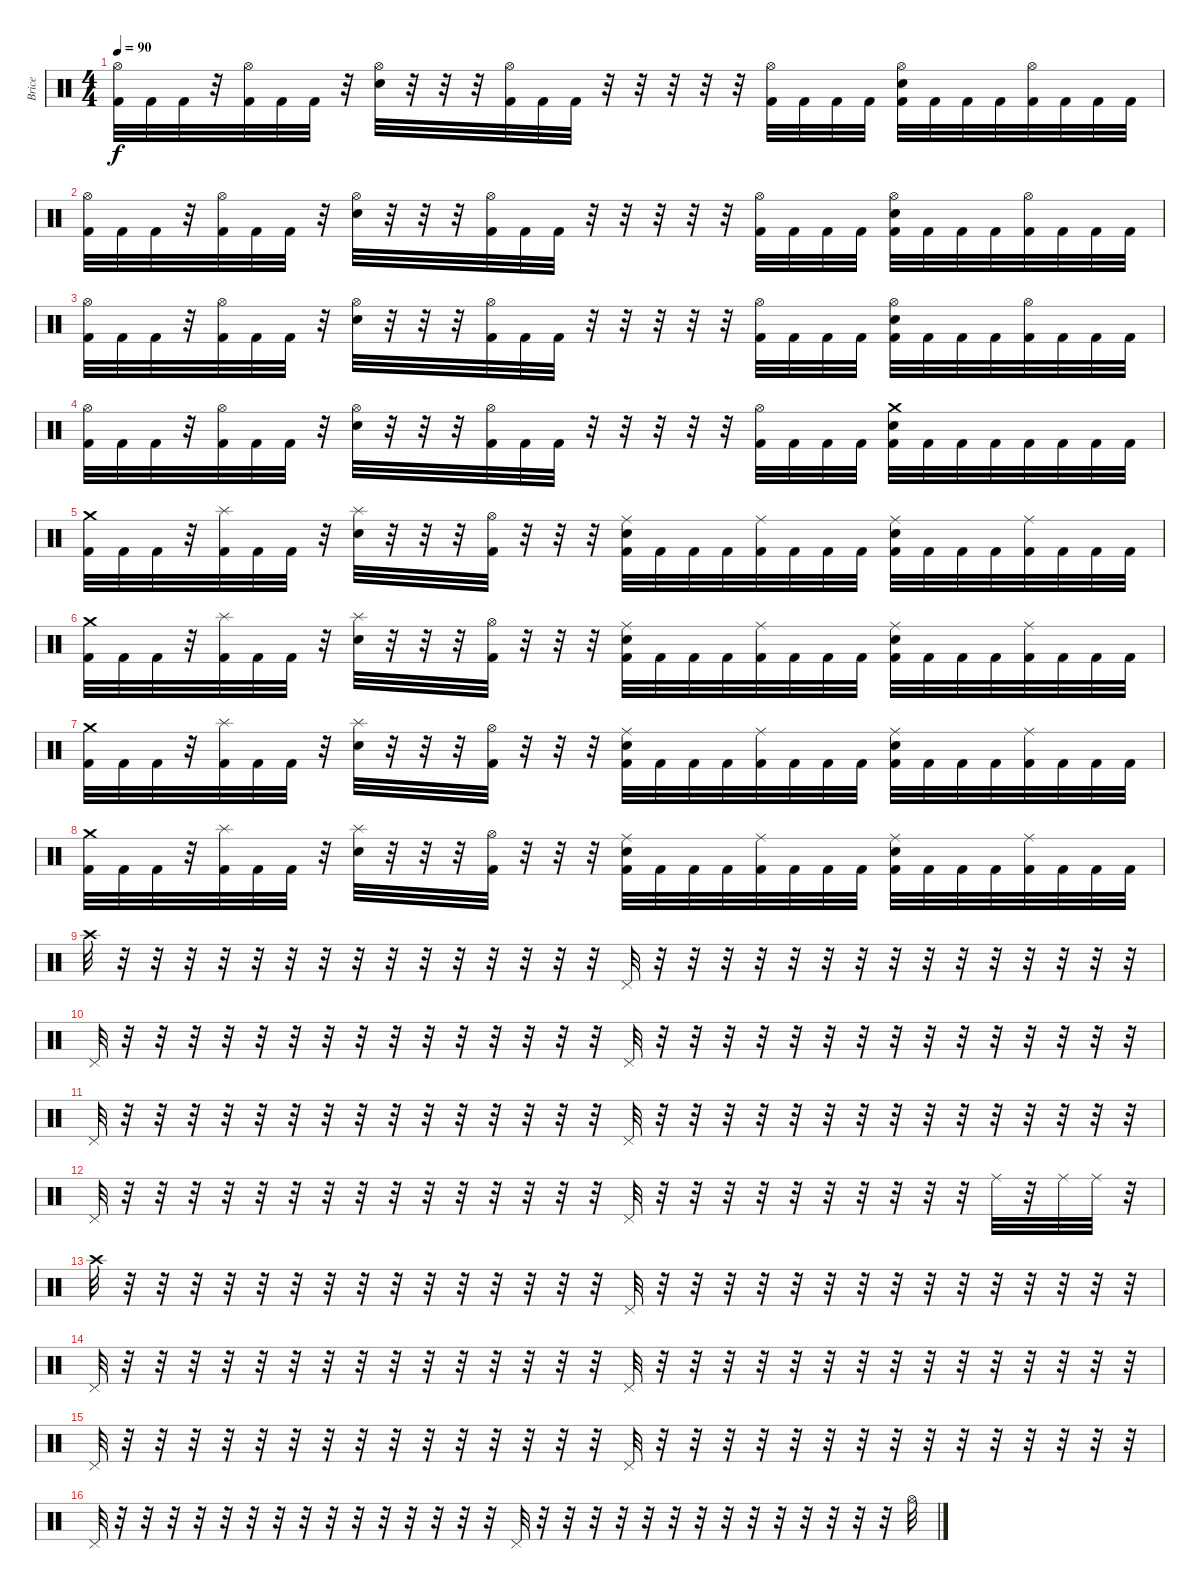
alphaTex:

\track ("Brice" "Brice") {instrument percussion}
\staff {score}
\articulation defaults
\ts (4 4)
\tempo 90
\clef neutral
\ks c
("Hi-Hat (open)" "Kick (hit) 2").32{dy f} "Kick (hit) 2".32 "Kick (hit) 2".32 r.32 ("Hi-Hat (open)" "Kick (hit) 2").32 "Kick (hit) 2".32 "Kick (hit) 2".32 r.32 ("Hi-Hat (open)" "Electric Snare (hit)").32 r.32 r.32 r.32 ("Hi-Hat (open)" "Kick (hit) 2").32 "Kick (hit) 2".32 "Kick (hit) 2".32 r.32 r.32 r.32 r.32 r.32 ("Hi-Hat (open)" "Kick (hit) 2").32 "Kick (hit) 2".32 "Kick (hit) 2".32 "Kick (hit) 2".32 ("Hi-Hat (open)" "Electric Snare (hit)" "Kick (hit) 2").32 "Kick (hit) 2".32 "Kick (hit) 2".32 "Kick (hit) 2".32 ("Hi-Hat (open)" "Kick (hit) 2").32 "Kick (hit) 2".32 "Kick (hit) 2".32 "Kick (hit) 2".32 |
("Hi-Hat (open)" "Kick (hit) 2").32 "Kick (hit) 2".32 "Kick (hit) 2".32 r.32 ("Hi-Hat (open)" "Kick (hit) 2").32 "Kick (hit) 2".32 "Kick (hit) 2".32 r.32 ("Hi-Hat (open)" "Electric Snare (hit)").32 r.32 r.32 r.32 ("Hi-Hat (open)" "Kick (hit) 2").32 "Kick (hit) 2".32 "Kick (hit) 2".32 r.32 r.32 r.32 r.32 r.32 ("Hi-Hat (open)" "Kick (hit) 2").32 "Kick (hit) 2".32 "Kick (hit) 2".32 "Kick (hit) 2".32 ("Hi-Hat (open)" "Electric Snare (hit)" "Kick (hit) 2").32 "Kick (hit) 2".32 "Kick (hit) 2".32 "Kick (hit) 2".32 ("Hi-Hat (open)" "Kick (hit) 2").32 "Kick (hit) 2".32 "Kick (hit) 2".32 "Kick (hit) 2".32 |
("Hi-Hat (open)" "Kick (hit) 2").32 "Kick (hit) 2".32 "Kick (hit) 2".32 r.32 ("Hi-Hat (open)" "Kick (hit) 2").32 "Kick (hit) 2".32 "Kick (hit) 2".32 r.32 ("Hi-Hat (open)" "Electric Snare (hit)").32 r.32 r.32 r.32 ("Hi-Hat (open)" "Kick (hit) 2").32 "Kick (hit) 2".32 "Kick (hit) 2".32 r.32 r.32 r.32 r.32 r.32 ("Hi-Hat (open)" "Kick (hit) 2").32 "Kick (hit) 2".32 "Kick (hit) 2".32 "Kick (hit) 2".32 ("Hi-Hat (open)" "Electric Snare (hit)" "Kick (hit) 2").32 "Kick (hit) 2".32 "Kick (hit) 2".32 "Kick (hit) 2".32 ("Hi-Hat (open)" "Kick (hit) 2").32 "Kick (hit) 2".32 "Kick (hit) 2".32 "Kick (hit) 2".32 |
("Hi-Hat (open)" "Kick (hit) 2").32 "Kick (hit) 2".32 "Kick (hit) 2".32 r.32 ("Hi-Hat (open)" "Kick (hit) 2").32 "Kick (hit) 2".32 "Kick (hit) 2".32 r.32 ("Hi-Hat (open)" "Electric Snare (hit)").32 r.32 r.32 r.32 ("Hi-Hat (open)" "Kick (hit) 2").32 "Kick (hit) 2".32 "Kick (hit) 2".32 r.32 r.32 r.32 r.32 r.32 ("Hi-Hat (open)" "Kick (hit) 2").32 "Kick (hit) 2".32 "Kick (hit) 2".32 "Kick (hit) 2".32 ("Crash medium (hit)" "Electric Snare (hit)" "Kick (hit) 2").32 "Kick (hit) 2".32 "Kick (hit) 2".32 "Kick (hit) 2".32 "Kick (hit) 2".32 "Kick (hit) 2".32 "Kick (hit) 2".32 "Kick (hit) 2".32 |
("Crash medium (hit)" "Kick (hit) 2").32 "Kick (hit) 2".32 "Kick (hit) 2".32 r.32 ("Splash (hit)" "Kick (hit) 2").32 "Kick (hit) 2".32 "Kick (hit) 2".32 r.32 ("Splash (hit)" "Electric Snare (hit)").32 r.32 r.32 r.32 ("Hi-Hat (open)" "Kick (hit) 2").32 r.32 r.32 r.32 ("Ride (middle)" "Electric Snare (hit)" "Kick (hit) 2").32 "Kick (hit) 2".32 "Kick (hit) 2".32 "Kick (hit) 2".32 ("Ride (middle)" "Kick (hit) 2").32 "Kick (hit) 2".32 "Kick (hit) 2".32 "Kick (hit) 2".32 ("Ride (middle)" "Electric Snare (hit)" "Kick (hit) 2").32 "Kick (hit) 2".32 "Kick (hit) 2".32 "Kick (hit) 2".32 ("Ride (middle)" "Kick (hit) 2").32 "Kick (hit) 2".32 "Kick (hit) 2".32 "Kick (hit) 2".32 |
("Crash medium (hit)" "Kick (hit) 2").32 "Kick (hit) 2".32 "Kick (hit) 2".32 r.32 ("Splash (hit)" "Kick (hit) 2").32 "Kick (hit) 2".32 "Kick (hit) 2".32 r.32 ("Splash (hit)" "Electric Snare (hit)").32 r.32 r.32 r.32 ("Hi-Hat (open)" "Kick (hit) 2").32 r.32 r.32 r.32 ("Ride (middle)" "Electric Snare (hit)" "Kick (hit) 2").32 "Kick (hit) 2".32 "Kick (hit) 2".32 "Kick (hit) 2".32 ("Ride (middle)" "Kick (hit) 2").32 "Kick (hit) 2".32 "Kick (hit) 2".32 "Kick (hit) 2".32 ("Ride (middle)" "Electric Snare (hit)" "Kick (hit) 2").32 "Kick (hit) 2".32 "Kick (hit) 2".32 "Kick (hit) 2".32 ("Ride (middle)" "Kick (hit) 2").32 "Kick (hit) 2".32 "Kick (hit) 2".32 "Kick (hit) 2".32 |
("Crash medium (hit)" "Kick (hit) 2").32 "Kick (hit) 2".32 "Kick (hit) 2".32 r.32 ("Splash (hit)" "Kick (hit) 2").32 "Kick (hit) 2".32 "Kick (hit) 2".32 r.32 ("Splash (hit)" "Electric Snare (hit)").32 r.32 r.32 r.32 ("Hi-Hat (open)" "Kick (hit) 2").32 r.32 r.32 r.32 ("Ride (middle)" "Electric Snare (hit)" "Kick (hit) 2").32 "Kick (hit) 2".32 "Kick (hit) 2".32 "Kick (hit) 2".32 ("Ride (middle)" "Kick (hit) 2").32 "Kick (hit) 2".32 "Kick (hit) 2".32 "Kick (hit) 2".32 ("Ride (middle)" "Electric Snare (hit)" "Kick (hit) 2").32 "Kick (hit) 2".32 "Kick (hit) 2".32 "Kick (hit) 2".32 ("Ride (middle)" "Kick (hit) 2").32 "Kick (hit) 2".32 "Kick (hit) 2".32 "Kick (hit) 2".32 |
("Crash medium (hit)" "Kick (hit) 2").32 "Kick (hit) 2".32 "Kick (hit) 2".32 r.32 ("Splash (hit)" "Kick (hit) 2").32 "Kick (hit) 2".32 "Kick (hit) 2".32 r.32 ("Splash (hit)" "Electric Snare (hit)").32 r.32 r.32 r.32 ("Hi-Hat (open)" "Kick (hit) 2").32 r.32 r.32 r.32 ("Ride (middle)" "Electric Snare (hit)" "Kick (hit) 2").32 "Kick (hit) 2".32 "Kick (hit) 2".32 "Kick (hit) 2".32 ("Ride (middle)" "Kick (hit) 2").32 "Kick (hit) 2".32 "Kick (hit) 2".32 "Kick (hit) 2".32 ("Ride (middle)" "Electric Snare (hit)" "Kick (hit) 2").32 "Kick (hit) 2".32 "Kick (hit) 2".32 "Kick (hit) 2".32 ("Ride (middle)" "Kick (hit) 2").32 "Kick (hit) 2".32 "Kick (hit) 2".32 "Kick (hit) 2".32 |
"Crash high (hit)".32 r.32 r.32 r.32 r.32 r.32 r.32 r.32 r.32 r.32 r.32 r.32 r.32 r.32 r.32 r.32 "Pedal Hi-Hat (hit)".32 r.32 r.32 r.32 r.32 r.32 r.32 r.32 r.32 r.32 r.32 r.32 r.32 r.32 r.32 r.32 |
"Pedal Hi-Hat (hit)".32 r.32 r.32 r.32 r.32 r.32 r.32 r.32 r.32 r.32 r.32 r.32 r.32 r.32 r.32 r.32 "Pedal Hi-Hat (hit)".32 r.32 r.32 r.32 r.32 r.32 r.32 r.32 r.32 r.32 r.32 r.32 r.32 r.32 r.32 r.32 |
"Pedal Hi-Hat (hit)".32 r.32 r.32 r.32 r.32 r.32 r.32 r.32 r.32 r.32 r.32 r.32 r.32 r.32 r.32 r.32 "Pedal Hi-Hat (hit)".32 r.32 r.32 r.32 r.32 r.32 r.32 r.32 r.32 r.32 r.32 r.32 r.32 r.32 r.32 r.32 |
"Pedal Hi-Hat (hit)".32 r.32 r.32 r.32 r.32 r.32 r.32 r.32 r.32 r.32 r.32 r.32 r.32 r.32 r.32 r.32 "Pedal Hi-Hat (hit)".32 r.32 r.32 r.32 r.32 r.32 r.32 r.32 r.32 r.32 r.32 "Ride (middle)".32 r.32 "Ride (middle)".32 "Ride (middle)".32 r.32 |
"Crash high (hit)".32 r.32 r.32 r.32 r.32 r.32 r.32 r.32 r.32 r.32 r.32 r.32 r.32 r.32 r.32 r.32 "Pedal Hi-Hat (hit)".32 r.32 r.32 r.32 r.32 r.32 r.32 r.32 r.32 r.32 r.32 r.32 r.32 r.32 r.32 r.32 |
"Pedal Hi-Hat (hit)".32 r.32 r.32 r.32 r.32 r.32 r.32 r.32 r.32 r.32 r.32 r.32 r.32 r.32 r.32 r.32 "Pedal Hi-Hat (hit)".32 r.32 r.32 r.32 r.32 r.32 r.32 r.32 r.32 r.32 r.32 r.32 r.32 r.32 r.32 r.32 |
"Pedal Hi-Hat (hit)".32 r.32 r.32 r.32 r.32 r.32 r.32 r.32 r.32 r.32 r.32 r.32 r.32 r.32 r.32 r.32 "Pedal Hi-Hat (hit)".32 r.32 r.32 r.32 r.32 r.32 r.32 r.32 r.32 r.32 r.32 r.32 r.32 r.32 r.32 r.32 |
"Pedal Hi-Hat (hit)".32 r.32 r.32 r.32 r.32 r.32 r.32 r.32 r.32 r.32 r.32 r.32 r.32 r.32 r.32 r.32 "Pedal Hi-Hat (hit)".32 r.32 r.32 r.32 r.32 r.32 r.32 r.32 r.32 r.32 r.32 r.32 r.32 r.32 r.32 "Hi-Hat (open)".32
